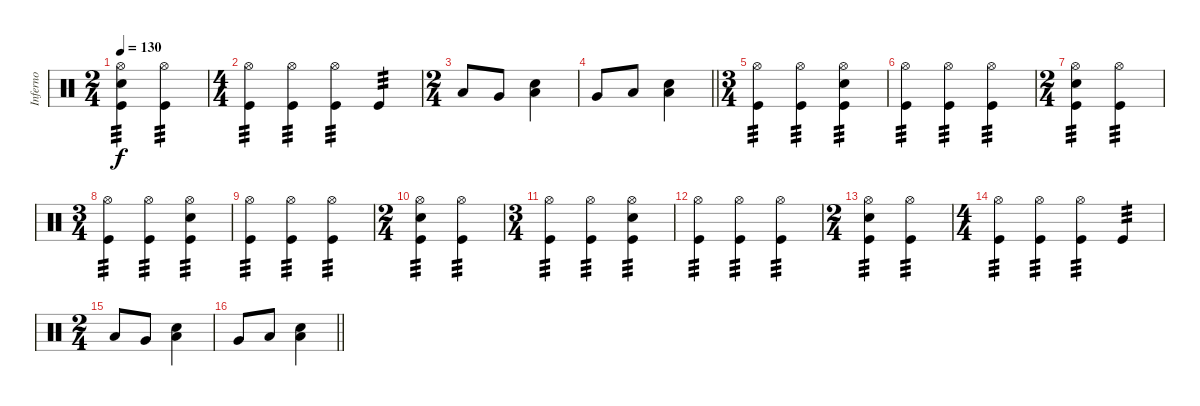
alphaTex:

\track ("Inferno" "Inferno") {instrument percussion}
\staff {score}
\articulation defaults
\ts (2 4)
\tempo 130
\clef neutral
\ks c
("Hi-Hat (open)" "Snare (hit) 2" "Kick (hit)").4{tp 3 dy f} ("Hi-Hat (open)" "Kick (hit)").4{tp 3} |
\ts (4 4)
("Hi-Hat (open)" "Kick (hit)").4{tp 3} ("Hi-Hat (open)" "Kick (hit)").4{tp 3} ("Hi-Hat (open)" "Kick (hit)").4{tp 3} "Kick (hit)".4{tp 3} |
\ts (2 4)
"Low Tom (hit)".8 "Very Low Tom (hit)".8 ("Snare (hit) 2" "Low Floor Tom (hit)").4 |
\barLineRight lightlight "Very Low Tom (hit)".8 "Low Floor Tom (hit)".8
("Low Floor Tom (hit)" "Snare (hit) 2").4 |
\ts (3 4)
("Hi-Hat (open)" "Kick (hit)").4{tp 3} ("Hi-Hat (open)" "Kick (hit)").4{tp 3} ("Hi-Hat (open)" "Snare (hit) 2" "Kick (hit)").4{tp 3} |
("Hi-Hat (open)" "Kick (hit)").4{tp 3} ("Hi-Hat (open)" "Kick (hit)").4{tp 3} ("Hi-Hat (open)" "Kick (hit)").4{tp 3} |
\ts (2 4)
("Hi-Hat (open)" "Snare (hit) 2" "Kick (hit)").4{tp 3} ("Hi-Hat (open)" "Kick (hit)").4{tp 3} |
\ts (3 4)
("Hi-Hat (open)" "Kick (hit)").4{tp 3} ("Hi-Hat (open)" "Kick (hit)").4{tp 3} ("Hi-Hat (open)" "Snare (hit) 2" "Kick (hit)").4{tp 3} |
("Hi-Hat (open)" "Kick (hit)").4{tp 3} ("Hi-Hat (open)" "Kick (hit)").4{tp 3} ("Hi-Hat (open)" "Kick (hit)").4{tp 3} |
\ts (2 4)
("Hi-Hat (open)" "Snare (hit) 2" "Kick (hit)").4{tp 3} ("Hi-Hat (open)" "Kick (hit)").4{tp 3} |
\ts (3 4)
("Hi-Hat (open)" "Kick (hit)").4{tp 3} ("Hi-Hat (open)" "Kick (hit)").4{tp 3} ("Hi-Hat (open)" "Snare (hit) 2" "Kick (hit)").4{tp 3} |
("Hi-Hat (open)" "Kick (hit)").4{tp 3} ("Hi-Hat (open)" "Kick (hit)").4{tp 3} ("Hi-Hat (open)" "Kick (hit)").4{tp 3} |
\ts (2 4)
("Hi-Hat (open)" "Snare (hit) 2" "Kick (hit)").4{tp 3} ("Hi-Hat (open)" "Kick (hit)").4{tp 3} |
\ts (4 4)
("Hi-Hat (open)" "Kick (hit)").4{tp 3} ("Hi-Hat (open)" "Kick (hit)").4{tp 3} ("Hi-Hat (open)" "Kick (hit)").4{tp 3} "Kick (hit)".4{tp 3} |
\ts (2 4)
"Low Tom (hit)".8 "Very Low Tom (hit)".8 ("Snare (hit) 2" "Low Floor Tom (hit)").4 |
\barLineRight lightlight "Very Low Tom (hit)".8 "Low Floor Tom (hit)".8
("Low Floor Tom (hit)" "Snare (hit) 2").4
